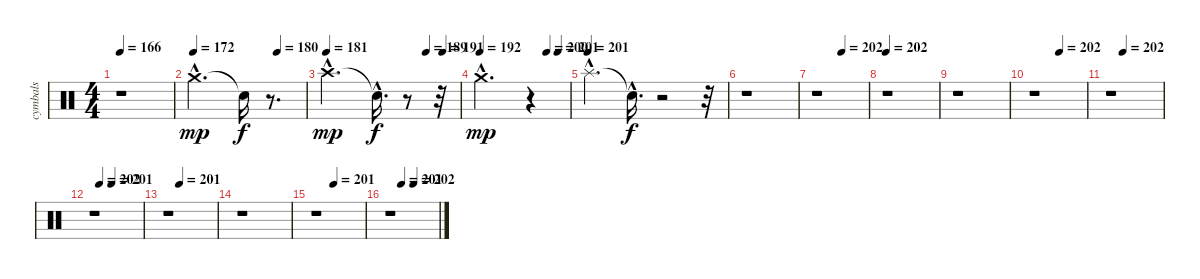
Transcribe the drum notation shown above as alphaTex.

\track ("cymbals" "cymbals") {instrument percussion}
\staff {score}
\articulation defaults
\ts (4 4)
\tempo 166
\clef neutral
\ks c
r.1{dy mp} |
\tempo 172
\tempo (180 0.75)
"Crash medium (hit)"{hac}.2{d} "Snare (hit)"{t}.16{dy f} r.8{d} |
\tempo 181
\tempo (189 0.75)
\tempo (191 0.875)
"Crash high (hit)"{hac}.2{d dy mp} "Snare (hit)"{hac t}.16{d dy f} r.8 r.32 |
\tempo 192
\tempo (200 0.75)
\tempo (201 0.875)
"Crash medium (hit)"{hac}.2{d dy mp} r.4 |
\tempo (201)
"Splash (hit)"{hac}.4{d} "Snare (hit)"{hac t}.16{d dy f} r.2 r.32 |
r.1 |
\tempo (202 0.5)
r.1 |
\tempo 202
r.1 |
r.1 |
\tempo (202 0.5)
r.1 |
\tempo (202 0.25)
r.1 |
\tempo (202 0.125)
\tempo (201 0.375)
r.1 |
\tempo (201 0.25)
r.1 |
r.1 |
\tempo (201 0.375)
r.1 |
\tempo (201 0.25)
\tempo (202 0.5)
r.1
